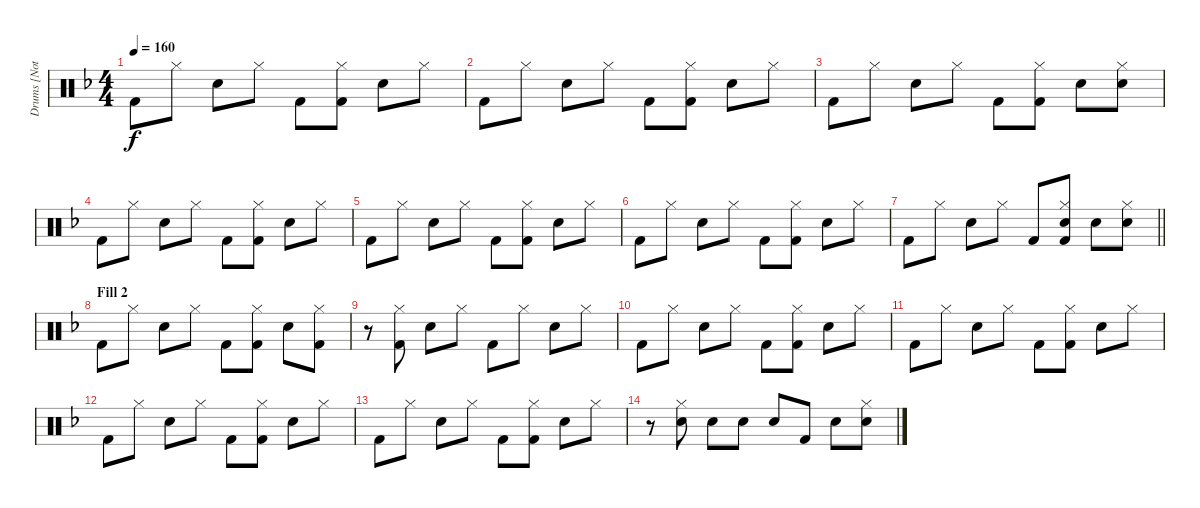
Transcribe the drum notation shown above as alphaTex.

\track ("Drums [Not Real]" "Drums [Not") {instrument percussion}
\staff {score}
\articulation defaults
\ts (4 4)
\tempo 160
\clef neutral
\ks f "Kick (hit) 2".8{dy f} "Hi-Hat (closed)".8 "Snare (hit) 2".8 "Hi-Hat (closed)".8 "Kick (hit) 2".8
("Hi-Hat (closed)" "Kick (hit) 2").8 "Snare (hit) 2".8 "Hi-Hat (closed)".8 |
"Kick (hit) 2".8 "Hi-Hat (closed)".8 "Snare (hit) 2".8 "Hi-Hat (closed)".8 "Kick (hit) 2".8 ("Hi-Hat (closed)" "Kick (hit) 2").8 "Snare (hit) 2".8 "Hi-Hat (closed)".8 |
"Kick (hit) 2".8 "Hi-Hat (closed)".8 "Snare (hit) 2".8 "Hi-Hat (closed)".8 "Kick (hit) 2".8 ("Hi-Hat (closed)" "Kick (hit) 2").8 "Snare (hit) 2".8 ("Hi-Hat (closed)" "Snare (hit) 2").8 |
"Kick (hit) 2".8 "Hi-Hat (closed)".8 "Snare (hit) 2".8 "Hi-Hat (closed)".8 "Kick (hit) 2".8 ("Hi-Hat (closed)" "Kick (hit) 2").8 "Snare (hit) 2".8 "Hi-Hat (closed)".8 |
"Kick (hit) 2".8 "Hi-Hat (closed)".8 "Snare (hit) 2".8 "Hi-Hat (closed)".8 "Kick (hit) 2".8 ("Hi-Hat (closed)" "Kick (hit) 2").8 "Snare (hit) 2".8 "Hi-Hat (closed)".8 |
"Kick (hit) 2".8 "Hi-Hat (closed)".8 "Snare (hit) 2".8 "Hi-Hat (closed)".8 "Kick (hit) 2".8 ("Hi-Hat (closed)" "Kick (hit) 2").8 "Snare (hit) 2".8 "Hi-Hat (closed)".8 |
\barLineRight lightlight "Kick (hit) 2".8 "Hi-Hat (closed)".8 "Snare (hit) 2".8 "Hi-Hat (closed)".8 "Kick (hit) 2".8
("Hi-Hat (closed)" "Snare (hit) 2" "Kick (hit) 2").8 "Snare (hit) 2".8 ("Hi-Hat (closed)" "Snare (hit) 2").8 |
\section ("" "Fill 2")
"Kick (hit) 2".8 "Hi-Hat (closed)".8 "Snare (hit) 2".8 "Hi-Hat (closed)".8 "Kick (hit) 2".8 ("Hi-Hat (closed)" "Kick (hit) 2").8 "Snare (hit) 2".8 ("Hi-Hat (closed)" "Kick (hit) 2").8 |
r.8 ("Hi-Hat (closed)" "Kick (hit) 2").8 "Snare (hit) 2".8 "Hi-Hat (closed)".8 "Kick (hit) 2".8 "Hi-Hat (closed)".8 "Snare (hit) 2".8 "Hi-Hat (closed)".8 |
"Kick (hit) 2".8 "Hi-Hat (closed)".8 "Snare (hit) 2".8 "Hi-Hat (closed)".8 "Kick (hit) 2".8 ("Hi-Hat (closed)" "Kick (hit) 2").8 "Snare (hit) 2".8 "Hi-Hat (closed)".8 |
"Kick (hit) 2".8 "Hi-Hat (closed)".8 "Snare (hit) 2".8 "Hi-Hat (closed)".8 "Kick (hit) 2".8 ("Hi-Hat (closed)" "Kick (hit) 2").8 "Snare (hit) 2".8 "Hi-Hat (closed)".8 |
"Kick (hit) 2".8 "Hi-Hat (closed)".8 "Snare (hit) 2".8 "Hi-Hat (closed)".8 "Kick (hit) 2".8 ("Hi-Hat (closed)" "Kick (hit) 2").8 "Snare (hit) 2".8 "Hi-Hat (closed)".8 |
"Kick (hit) 2".8 "Hi-Hat (closed)".8 "Snare (hit) 2".8 "Hi-Hat (closed)".8 "Kick (hit) 2".8 ("Hi-Hat (closed)" "Kick (hit) 2").8 "Snare (hit) 2".8 "Hi-Hat (closed)".8 |
r.8 ("Hi-Hat (closed)" "Snare (hit) 2").8 "Snare (hit) 2".8 "Snare (hit) 2".8 "Snare (hit) 2".8 "Kick (hit) 2".8 "Snare (hit) 2".8 ("Hi-Hat (closed)" "Snare (hit) 2").8
